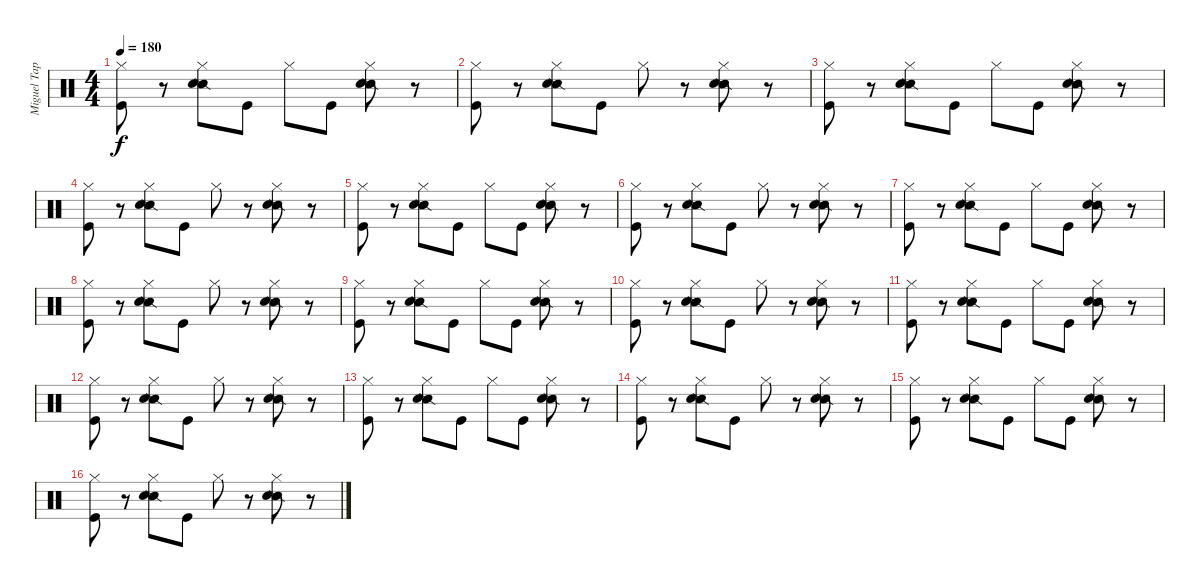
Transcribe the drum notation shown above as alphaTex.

\track ("Miguel Tapia (Batería)" "Miguel Tap") {instrument percussion}
\staff {score}
\articulation defaults
\ts (4 4)
\tempo 180
\clef neutral
\ks c
("Hi-Hat (closed)" "Kick (hit)").8{dy f} r.8 ("Snare (side stick) 2" "Hi-Hat (closed)" "Snare (hit) 2").8 "Kick (hit)".8 "Hi-Hat (closed)".8 "Kick (hit)".8 ("Snare (side stick) 2" "Hi-Hat (closed)" "Snare (hit) 2").8 r.8 |
("Hi-Hat (closed)" "Kick (hit)").8 r.8 ("Snare (side stick) 2" "Hi-Hat (closed)" "Snare (hit) 2").8 "Kick (hit)".8 "Hi-Hat (closed)".8 r.8 ("Snare (side stick) 2" "Hi-Hat (closed)" "Snare (hit) 2").8 r.8 |
("Hi-Hat (closed)" "Kick (hit)").8 r.8 ("Snare (side stick) 2" "Hi-Hat (closed)" "Snare (hit) 2").8 "Kick (hit)".8 "Hi-Hat (closed)".8 "Kick (hit)".8 ("Snare (side stick) 2" "Hi-Hat (closed)" "Snare (hit) 2").8 r.8 |
("Hi-Hat (closed)" "Kick (hit)").8 r.8 ("Snare (side stick) 2" "Hi-Hat (closed)" "Snare (hit) 2").8 "Kick (hit)".8 "Hi-Hat (closed)".8 r.8 ("Snare (side stick) 2" "Hi-Hat (closed)" "Snare (hit) 2").8 r.8 |
("Hi-Hat (closed)" "Kick (hit)").8 r.8 ("Snare (side stick) 2" "Hi-Hat (closed)" "Snare (hit) 2").8 "Kick (hit)".8 "Hi-Hat (closed)".8 "Kick (hit)".8 ("Snare (side stick) 2" "Hi-Hat (closed)" "Snare (hit) 2").8 r.8 |
("Hi-Hat (closed)" "Kick (hit)").8 r.8 ("Snare (side stick) 2" "Hi-Hat (closed)" "Snare (hit) 2").8 "Kick (hit)".8 "Hi-Hat (closed)".8 r.8 ("Snare (side stick) 2" "Hi-Hat (closed)" "Snare (hit) 2").8 r.8 |
("Hi-Hat (closed)" "Kick (hit)").8 r.8 ("Snare (side stick) 2" "Hi-Hat (closed)" "Snare (hit) 2").8 "Kick (hit)".8 "Hi-Hat (closed)".8 "Kick (hit)".8 ("Snare (side stick) 2" "Hi-Hat (closed)" "Snare (hit) 2").8 r.8 |
("Hi-Hat (closed)" "Kick (hit)").8 r.8 ("Snare (side stick) 2" "Hi-Hat (closed)" "Snare (hit) 2").8 "Kick (hit)".8 "Hi-Hat (closed)".8 r.8 ("Snare (side stick) 2" "Hi-Hat (closed)" "Snare (hit) 2").8 r.8 |
("Hi-Hat (closed)" "Kick (hit)").8 r.8 ("Snare (side stick) 2" "Hi-Hat (closed)" "Snare (hit) 2").8 "Kick (hit)".8 "Hi-Hat (closed)".8 "Kick (hit)".8 ("Snare (side stick) 2" "Hi-Hat (closed)" "Snare (hit) 2").8 r.8 |
("Hi-Hat (closed)" "Kick (hit)").8 r.8 ("Snare (side stick) 2" "Hi-Hat (closed)" "Snare (hit) 2").8 "Kick (hit)".8 "Hi-Hat (closed)".8 r.8 ("Snare (side stick) 2" "Hi-Hat (closed)" "Snare (hit) 2").8 r.8 |
("Hi-Hat (closed)" "Kick (hit)").8 r.8 ("Snare (side stick) 2" "Hi-Hat (closed)" "Snare (hit) 2").8 "Kick (hit)".8 "Hi-Hat (closed)".8 "Kick (hit)".8 ("Snare (side stick) 2" "Hi-Hat (closed)" "Snare (hit) 2").8 r.8 |
("Hi-Hat (closed)" "Kick (hit)").8 r.8 ("Snare (side stick) 2" "Hi-Hat (closed)" "Snare (hit) 2").8 "Kick (hit)".8 "Hi-Hat (closed)".8 r.8 ("Snare (side stick) 2" "Hi-Hat (closed)" "Snare (hit) 2").8 r.8 |
("Hi-Hat (closed)" "Kick (hit)").8 r.8 ("Snare (side stick) 2" "Hi-Hat (closed)" "Snare (hit) 2").8 "Kick (hit)".8 "Hi-Hat (closed)".8 "Kick (hit)".8 ("Snare (side stick) 2" "Hi-Hat (closed)" "Snare (hit) 2").8 r.8 |
("Hi-Hat (closed)" "Kick (hit)").8 r.8 ("Snare (side stick) 2" "Hi-Hat (closed)" "Snare (hit) 2").8 "Kick (hit)".8 "Hi-Hat (closed)".8 r.8 ("Snare (side stick) 2" "Hi-Hat (closed)" "Snare (hit) 2").8 r.8 |
("Hi-Hat (closed)" "Kick (hit)").8 r.8 ("Snare (side stick) 2" "Hi-Hat (closed)" "Snare (hit) 2").8 "Kick (hit)".8 "Hi-Hat (closed)".8 "Kick (hit)".8 ("Snare (side stick) 2" "Hi-Hat (closed)" "Snare (hit) 2").8 r.8 |
("Hi-Hat (closed)" "Kick (hit)").8 r.8 ("Snare (side stick) 2" "Hi-Hat (closed)" "Snare (hit) 2").8 "Kick (hit)".8 "Hi-Hat (closed)".8 r.8 ("Snare (side stick) 2" "Hi-Hat (closed)" "Snare (hit) 2").8 r.8
